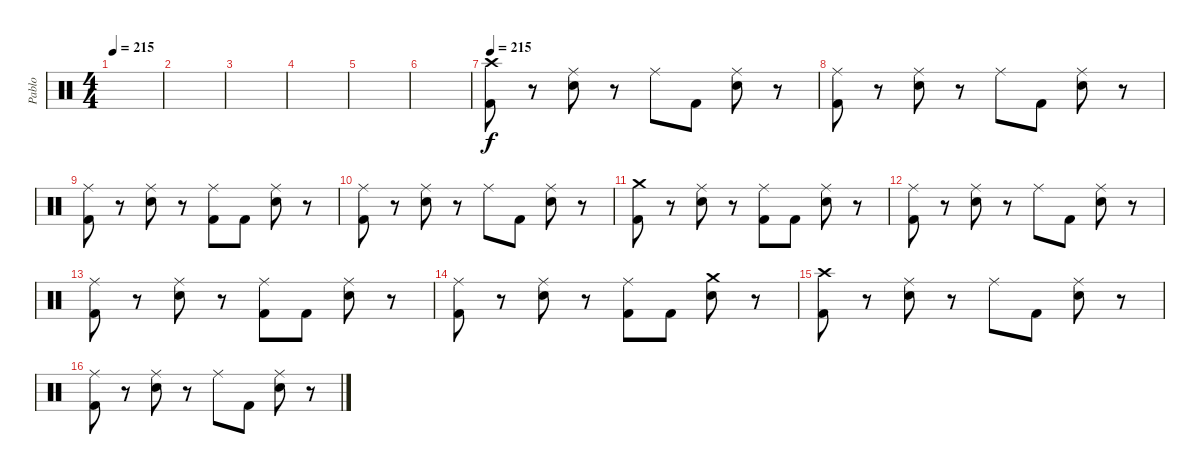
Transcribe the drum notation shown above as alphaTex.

\track ("Pablo" "Pablo") {instrument percussion}
\staff {score}
\articulation defaults
\ts (4 4)
\tempo 215
\tempo 120
\tempo 215
\clef neutral
\ks c
|
|
|
|
|
|
\tempo 215
("Crash high (hit)" "Kick (hit) 2").8 r.8 ("Ride (middle)" "Electric Snare (hit)").8 r.8 "Ride (middle)".8 "Kick (hit) 2".8 ("Ride (middle)" "Electric Snare (hit)").8 r.8 |
("Ride (middle)" "Kick (hit) 2").8 r.8 ("Ride (middle)" "Electric Snare (hit)").8 r.8 "Ride (middle)".8 "Kick (hit) 2".8 ("Ride (middle)" "Electric Snare (hit)").8 r.8 |
("Ride (middle)" "Kick (hit) 2").8 r.8 ("Ride (middle)" "Electric Snare (hit)").8 r.8 ("Ride (middle)" "Kick (hit) 2").8 "Kick (hit) 2".8 ("Ride (middle)" "Electric Snare (hit)").8 r.8 |
("Ride (middle)" "Kick (hit) 2").8 r.8 ("Ride (middle)" "Electric Snare (hit)").8 r.8 "Ride (middle)".8 "Kick (hit) 2".8 ("Ride (middle)" "Electric Snare (hit)").8 r.8 |
("Crash medium (hit)" "Kick (hit) 2").8 r.8 ("Ride (middle)" "Electric Snare (hit)").8 r.8 ("Ride (middle)" "Kick (hit) 2").8 "Kick (hit) 2".8 ("Ride (middle)" "Electric Snare (hit)").8 r.8 |
("Ride (middle)" "Kick (hit) 2").8 r.8 ("Ride (middle)" "Electric Snare (hit)").8 r.8 "Ride (middle)".8 "Kick (hit) 2".8 ("Ride (middle)" "Electric Snare (hit)").8 r.8 |
("Ride (middle)" "Kick (hit) 2").8 r.8 ("Ride (middle)" "Electric Snare (hit)").8 r.8 ("Ride (middle)" "Kick (hit) 2").8 "Kick (hit) 2".8 ("Ride (middle)" "Electric Snare (hit)").8 r.8 |
("Ride (middle)" "Kick (hit) 2").8 r.8 ("Ride (middle)" "Electric Snare (hit)").8 r.8 ("Ride (middle)" "Kick (hit) 2").8 "Kick (hit) 2".8 ("Crash medium (hit)" "Electric Snare (hit)").8 r.8 |
("Crash high (hit)" "Kick (hit) 2").8 r.8 ("Ride (middle)" "Electric Snare (hit)").8 r.8 "Ride (middle)".8 "Kick (hit) 2".8 ("Ride (middle)" "Electric Snare (hit)").8 r.8 |
("Ride (middle)" "Kick (hit) 2").8 r.8 ("Ride (middle)" "Electric Snare (hit)").8 r.8 "Ride (middle)".8 "Kick (hit) 2".8 ("Ride (middle)" "Electric Snare (hit)").8 r.8
